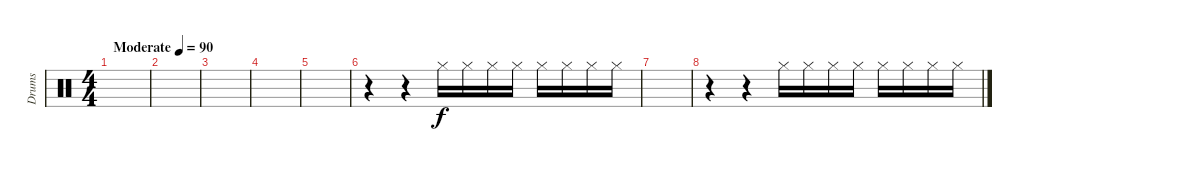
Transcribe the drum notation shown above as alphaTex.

\track ("Drums" "Drums") {instrument percussion}
\staff {score}
\articulation defaults
\ts (4 4)
\tempo (90 "Moderate")
\clef neutral
\ks c
|
|
|
|
|
r.4 r.4 "Hi-Hat (closed)".16 "Hi-Hat (closed)".16 "Hi-Hat (closed)".16 "Hi-Hat (closed)".16 "Hi-Hat (closed)".16 "Hi-Hat (closed)".16 "Hi-Hat (closed)".16 "Hi-Hat (closed)".16 |
|
r.4 r.4 "Hi-Hat (closed)".16 "Hi-Hat (closed)".16 "Hi-Hat (closed)".16 "Hi-Hat (closed)".16 "Hi-Hat (closed)".16 "Hi-Hat (closed)".16 "Hi-Hat (closed)".16 "Hi-Hat (closed)".16
